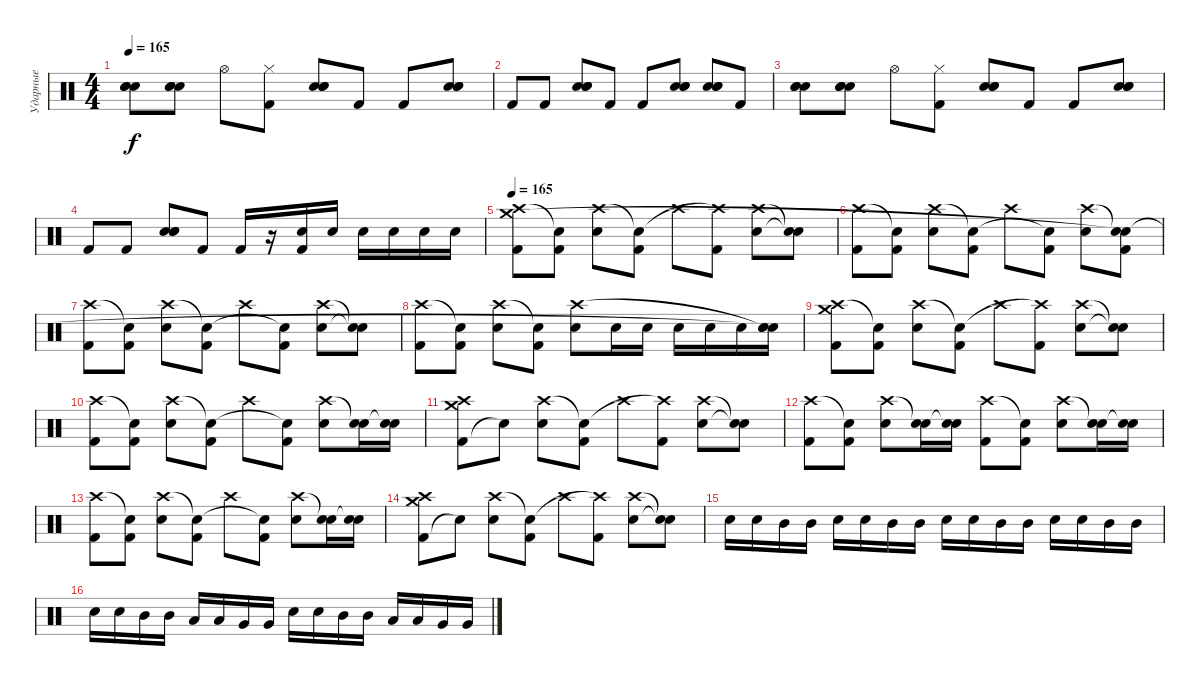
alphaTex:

\track ("Ударные" "Ударные") {instrument percussion}
\staff {score}
\articulation defaults
\ts (4 4)
\tempo 165
\clef neutral
\ks c
("Electric Snare (hit)" "Electric Snare (hit)" "Electric Snare (hit)").8{bu 120 dy f} ("Electric Snare (hit)" "Electric Snare (hit)" "Electric Snare (hit)").8{bu 120} "Hi-Hat (open)".8 ("Hi-Hat (closed)" "Kick (hit) 2").8 ("Electric Snare (hit)" "Electric Snare (hit)" "Electric Snare (hit)").8{bu 120} "Kick (hit) 2".8 "Kick (hit) 2".8 ("Electric Snare (hit)" "Electric Snare (hit)" "Electric Snare (hit)").8{bu 120} |
"Kick (hit) 2".8 "Kick (hit) 2".8 ("Electric Snare (hit)" "Electric Snare (hit)" "Electric Snare (hit)").8{bu 120} "Kick (hit) 2".8 "Kick (hit) 2".8 ("Electric Snare (hit)" "Electric Snare (hit)" "Electric Snare (hit)").8{bu 120} ("Electric Snare (hit)" "Electric Snare (hit)" "Electric Snare (hit)").8{bu 120} "Kick (hit) 2".8 |
("Electric Snare (hit)" "Electric Snare (hit)" "Electric Snare (hit)").8{bu 120} ("Electric Snare (hit)" "Electric Snare (hit)" "Electric Snare (hit)").8{bu 120} "Hi-Hat (open)".8 ("Hi-Hat (closed)" "Kick (hit) 2").8 ("Electric Snare (hit)" "Electric Snare (hit)" "Electric Snare (hit)").8{bu 120} "Kick (hit) 2".8 "Kick (hit) 2".8 ("Electric Snare (hit)" "Electric Snare (hit)" "Electric Snare (hit)").8{bu 120} |
"Kick (hit) 2".8 "Kick (hit) 2".8 ("Electric Snare (hit)" "Electric Snare (hit)" "Electric Snare (hit)").8{bu 120} "Kick (hit) 2".8 "Kick (hit) 2".16 r.16 ("Electric Snare (hit)" "Kick (hit) 2").16 "Electric Snare (hit)".16 "Electric Snare (hit)".16 "Electric Snare (hit)".16 "Electric Snare (hit)".16 "Electric Snare (hit)".16 |
\tempo 165
("Kick (hit) 2" "Crash high (hit)" "Crash medium (hit)").8 ("Kick (hit) 2" "Snare (hit)"{t}).8 ("Electric Snare (hit)" "Crash high (hit)").8 ("Kick (hit) 2" "Snare (hit)"{t}).8 "Crash high (hit)".8 ("Kick (hit) 2" "Crash high (hit)"{t}).8 ("Electric Snare (hit)" "Crash high (hit)").8 ("Snare (hit)"{t} "Snare (hit)"{t}).8 |
("Kick (hit) 2" "Crash high (hit)").8 ("Kick (hit) 2" "Snare (hit)"{t}).8 ("Electric Snare (hit)" "Crash high (hit)").8 ("Kick (hit) 2" "Snare (hit)"{t}).8 "Crash high (hit)".8 ("Kick (hit) 2" "Snare (hit)"{t}).8 ("Electric Snare (hit)" "Crash high (hit)").8 ("Kick (hit) 2" "Snare (hit)"{t} "Snare (hit)"{t}).8 |
("Kick (hit) 2" "Crash high (hit)").8 ("Kick (hit) 2" "Snare (hit)"{t}).8 ("Electric Snare (hit)" "Crash high (hit)").8 ("Kick (hit) 2" "Snare (hit)"{t}).8 "Crash high (hit)".8 ("Kick (hit) 2" "Snare (hit)"{t}).8 ("Electric Snare (hit)" "Crash high (hit)").8 ("Snare (hit)"{t} "Snare (hit)"{t}).8 |
("Kick (hit) 2" "Crash high (hit)").8 ("Kick (hit) 2" "Snare (hit)"{t}).8 ("Electric Snare (hit)" "Crash high (hit)").8 ("Kick (hit) 2" "Snare (hit)"{t}).8 ("Electric Snare (hit)" "Crash high (hit)").8 "Electric Snare (hit)".16 "Electric Snare (hit)".16 "Electric Snare (hit)".16 "Electric Snare (hit)".16 "Electric Snare (hit)".16 ("Electric Snare (hit)" "Snare (hit)"{t} "Snare (hit)"{t}).16 |
("Kick (hit) 2" "Crash high (hit)" "Crash medium (hit)").8 ("Kick (hit) 2" "Snare (hit)"{t}).8 ("Electric Snare (hit)" "Crash high (hit)").8 ("Kick (hit) 2" "Snare (hit)"{t}).8 "Crash high (hit)".8 ("Kick (hit) 2" "Crash high (hit)"{t}).8 ("Electric Snare (hit)" "Crash high (hit)").8 ("Snare (hit)"{t} "Snare (hit)"{t}).8 |
("Kick (hit) 2" "Crash high (hit)").8 ("Kick (hit) 2" "Snare (hit)"{t}).8 ("Electric Snare (hit)" "Crash high (hit)").8 ("Kick (hit) 2" "Snare (hit)"{t}).8 "Crash high (hit)".8 ("Kick (hit) 2" "Snare (hit)"{t}).8 ("Electric Snare (hit)" "Crash high (hit)").8 ("Electric Snare (hit)" "Snare (hit)"{t}).16 ("Electric Snare (hit)" "Snare (hit)"{t}).16 |
("Kick (hit) 2" "Crash high (hit)" "Crash medium (hit)").8 "Snare (hit)"{t}.8 ("Electric Snare (hit)" "Crash high (hit)").8 ("Kick (hit) 2" "Snare (hit)"{t}).8 "Crash high (hit)".8 ("Kick (hit) 2" "Crash high (hit)"{t}).8 ("Electric Snare (hit)" "Crash high (hit)").8 ("Snare (hit)"{t} "Snare (hit)"{t}).8 |
("Kick (hit) 2" "Crash high (hit)").8 ("Kick (hit) 2" "Snare (hit)"{t}).8 ("Electric Snare (hit)" "Crash high (hit)").8 ("Electric Snare (hit)" "Snare (hit)"{t}).16 ("Electric Snare (hit)" "Snare (hit)"{t}).16 ("Kick (hit) 2" "Crash high (hit)").8 ("Kick (hit) 2" "Snare (hit)"{t}).8 ("Electric Snare (hit)" "Crash high (hit)").8 ("Electric Snare (hit)" "Snare (hit)"{t}).16 ("Electric Snare (hit)" "Snare (hit)"{t}).16 |
("Kick (hit) 2" "Crash high (hit)").8 ("Kick (hit) 2" "Snare (hit)"{t}).8 ("Electric Snare (hit)" "Crash high (hit)").8 ("Kick (hit) 2" "Snare (hit)"{t}).8 "Crash high (hit)".8 ("Kick (hit) 2" "Snare (hit)"{t}).8 ("Electric Snare (hit)" "Crash high (hit)").8 ("Electric Snare (hit)" "Snare (hit)"{t}).16 ("Electric Snare (hit)" "Snare (hit)"{t}).16 |
("Kick (hit) 2" "Crash high (hit)" "Crash medium (hit)").8 "Snare (hit)"{t}.8 ("Electric Snare (hit)" "Crash high (hit)").8 ("Kick (hit) 2" "Snare (hit)"{t}).8 "Crash high (hit)".8 ("Kick (hit) 2" "Crash high (hit)"{t}).8 ("Electric Snare (hit)" "Crash high (hit)").8 ("Snare (hit)"{t} "Snare (hit)"{t}).8 |
"Electric Snare (hit)".16 "Electric Snare (hit)".16 "Mid Tom (hit)".16 "Mid Tom (hit)".16 "Electric Snare (hit)".16 "Electric Snare (hit)".16 "Mid Tom (hit)".16 "Mid Tom (hit)".16 "Electric Snare (hit)".16 "Electric Snare (hit)".16 "Mid Tom (hit)".16 "Mid Tom (hit)".16 "Electric Snare (hit)".16 "Electric Snare (hit)".16 "Mid Tom (hit)".16 "Mid Tom (hit)".16 |
"Electric Snare (hit)".16 "Electric Snare (hit)".16 "Mid Tom (hit)".16 "Mid Tom (hit)".16 "Low Tom (hit)".16 "Low Tom (hit)".16 "Very Low Tom (hit)".16 "Very Low Tom (hit)".16 "Electric Snare (hit)".16 "Electric Snare (hit)".16 "Mid Tom (hit)".16 "Mid Tom (hit)".16 "Low Tom (hit)".16 "Low Tom (hit)".16 "Very Low Tom (hit)".16 "Very Low Tom (hit)".16
